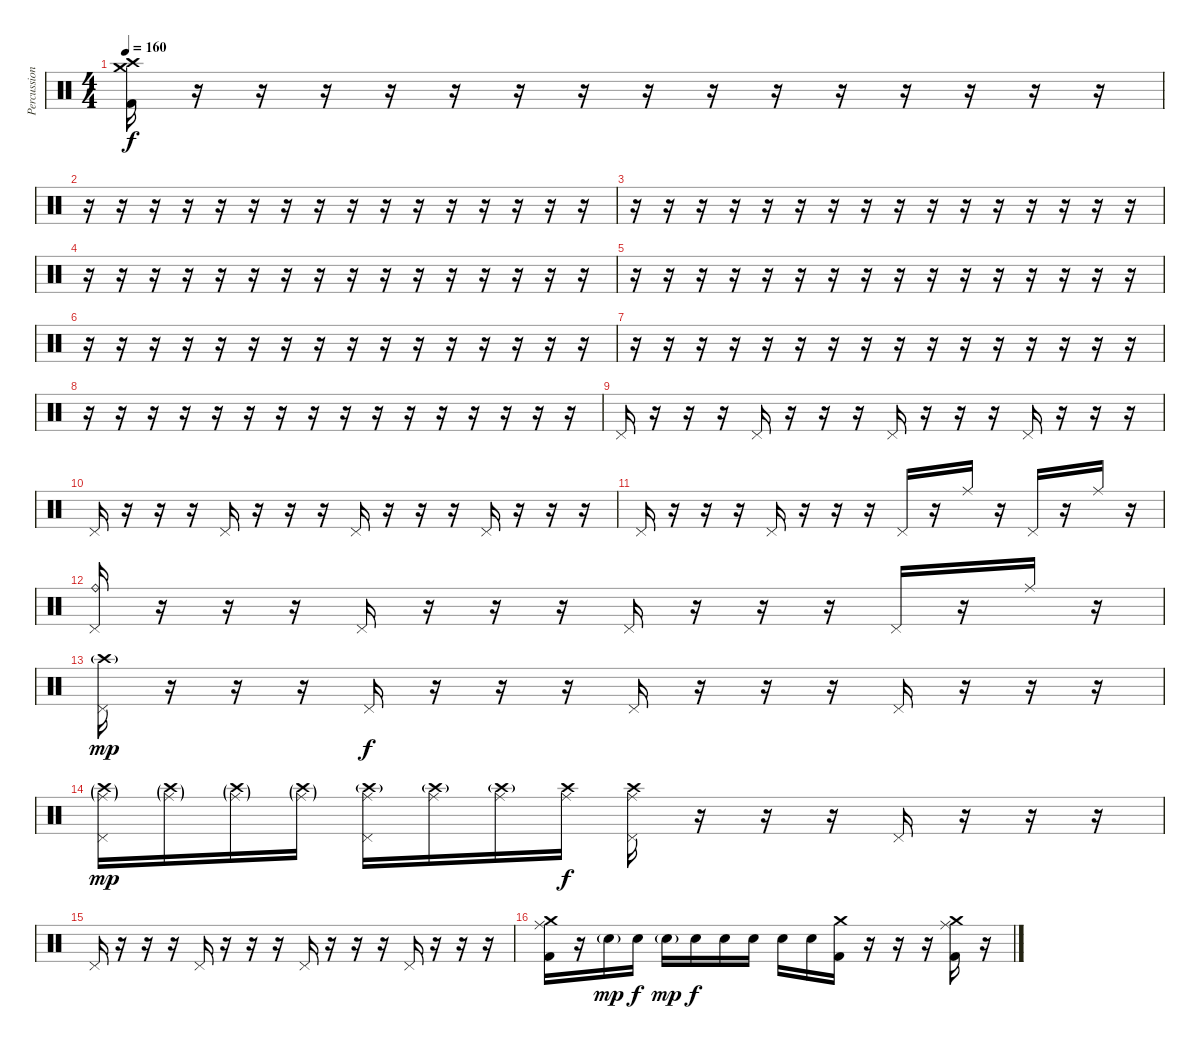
\track ("Percussion" "Percussion") {instrument percussion}
\staff {score}
\articulation defaults
\ts (4 4)
\tempo 160
\clef neutral
\ks c
("Crash medium (hit)" "Crash high (hit)" "Kick (hit) 2").16{dy f} r.16 r.16 r.16 r.16 r.16 r.16 r.16 r.16 r.16 r.16 r.16 r.16 r.16 r.16 r.16 |
r.16 r.16 r.16 r.16 r.16 r.16 r.16 r.16 r.16 r.16 r.16 r.16 r.16 r.16 r.16 r.16 |
r.16 r.16 r.16 r.16 r.16 r.16 r.16 r.16 r.16 r.16 r.16 r.16 r.16 r.16 r.16 r.16 |
r.16 r.16 r.16 r.16 r.16 r.16 r.16 r.16 r.16 r.16 r.16 r.16 r.16 r.16 r.16 r.16 |
r.16 r.16 r.16 r.16 r.16 r.16 r.16 r.16 r.16 r.16 r.16 r.16 r.16 r.16 r.16 r.16 |
r.16 r.16 r.16 r.16 r.16 r.16 r.16 r.16 r.16 r.16 r.16 r.16 r.16 r.16 r.16 r.16 |
r.16 r.16 r.16 r.16 r.16 r.16 r.16 r.16 r.16 r.16 r.16 r.16 r.16 r.16 r.16 r.16 |
r.16 r.16 r.16 r.16 r.16 r.16 r.16 r.16 r.16 r.16 r.16 r.16 r.16 r.16 r.16 r.16 |
"Pedal Hi-Hat (hit)".16 r.16 r.16 r.16 "Pedal Hi-Hat (hit)".16 r.16 r.16 r.16 "Pedal Hi-Hat (hit)".16 r.16 r.16 r.16 "Pedal Hi-Hat (hit)".16 r.16 r.16 r.16 |
"Pedal Hi-Hat (hit)".16 r.16 r.16 r.16 "Pedal Hi-Hat (hit)".16 r.16 r.16 r.16 "Pedal Hi-Hat (hit)".16 r.16 r.16 r.16 "Pedal Hi-Hat (hit)".16 r.16 r.16 r.16 |
"Pedal Hi-Hat (hit)".16 r.16 r.16 r.16 "Pedal Hi-Hat (hit)".16 r.16 r.16 r.16 "Pedal Hi-Hat (hit)".16 r.16 "Ride (middle)".16 r.16 "Pedal Hi-Hat (hit)".16 r.16 "Ride (middle)".16 r.16 |
("Ride (bell)" "Pedal Hi-Hat (hit)").16 r.16 r.16 r.16 "Pedal Hi-Hat (hit)".16 r.16 r.16 r.16 "Pedal Hi-Hat (hit)".16 r.16 r.16 r.16 "Pedal Hi-Hat (hit)".16 r.16 "Ride (middle)".16 r.16 |
("Crash high (hit)"{g} "Pedal Hi-Hat (hit)").16{dy mp} r.16 r.16 r.16 "Pedal Hi-Hat (hit)".16{dy f} r.16 r.16 r.16 "Pedal Hi-Hat (hit)".16 r.16 r.16 r.16 "Pedal Hi-Hat (hit)".16 r.16 r.16 r.16 |
("Crash high (hit)"{g} "Ride (middle)"{g} "Pedal Hi-Hat (hit)").16{dy mp} ("Crash high (hit)"{g} "Ride (middle)"{g}).16 ("Crash high (hit)"{g} "Ride (middle)"{g}).16 ("Crash high (hit)"{g} "Ride (middle)"{g}).16 ("Crash high (hit)"{g} "Ride (middle)" "Pedal Hi-Hat (hit)").16 ("Crash high (hit)"{g} "Ride (middle)").16 ("Crash high (hit)"{g} "Ride (middle)").16 ("Crash high (hit)" "Ride (middle)").16{dy f} ("Crash high (hit)" "Ride (middle)" "Pedal Hi-Hat (hit)").16 r.16 r.16 r.16 "Pedal Hi-Hat (hit)".16 r.16 r.16 r.16 |
"Pedal Hi-Hat (hit)".16 r.16 r.16 r.16 "Pedal Hi-Hat (hit)".16 r.16 r.16 r.16 "Pedal Hi-Hat (hit)".16 r.16 r.16 r.16 "Pedal Hi-Hat (hit)".16 r.16 r.16 r.16 |
("Crash medium (hit)" "Ride (middle)" "Kick (hit) 2").16 r.16 "Electric Snare (hit)"{g}.16{dy mp} "Electric Snare (hit)".16{dy f} "Electric Snare (hit)"{g}.16{dy mp} "Electric Snare (hit)".16{dy f} "Electric Snare (hit)".16 "Electric Snare (hit)".16 "Electric Snare (hit)".16 "Electric Snare (hit)".16 ("Crash medium (hit)" "Kick (hit) 2").16 r.16 r.16 r.16 ("Crash medium (hit)" "Ride (middle)" "Kick (hit) 2").16 r.16
